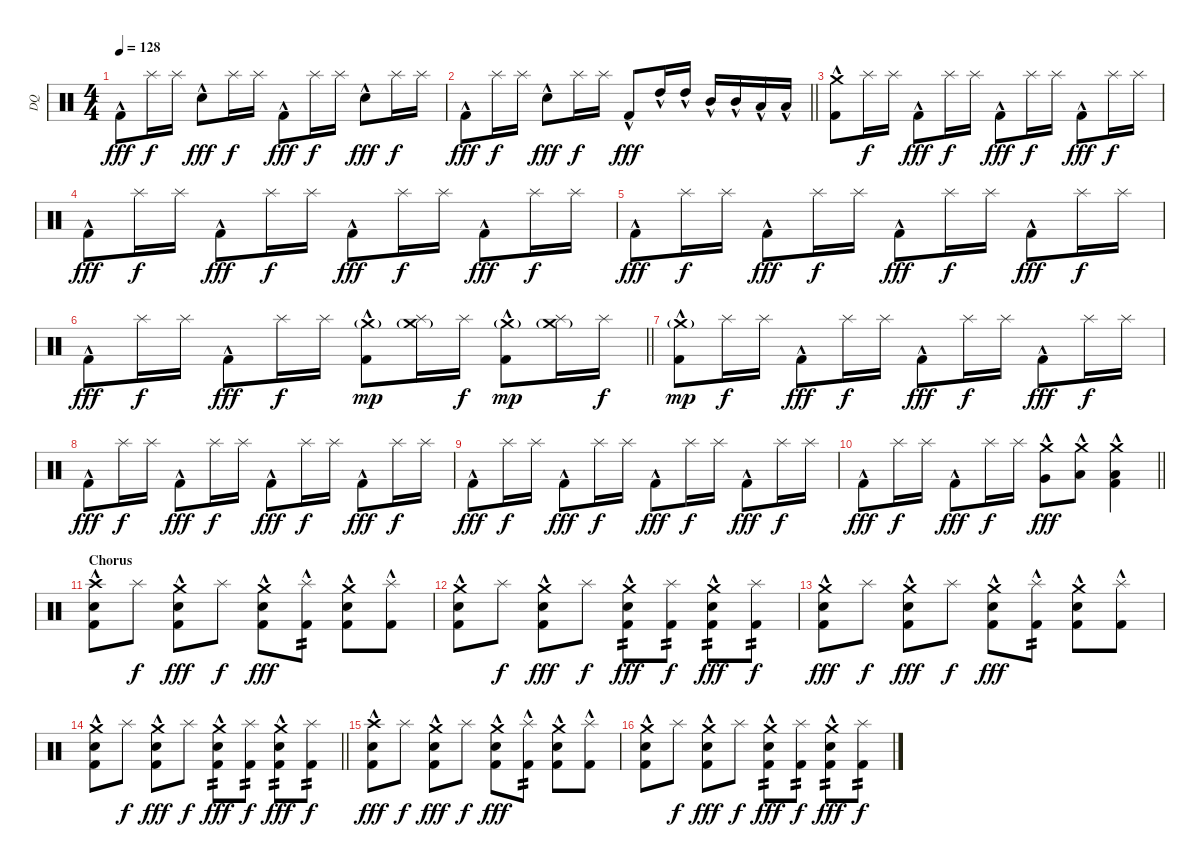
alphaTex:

\track ("DQ" "DQ") {instrument percussion}
\staff {score}
\articulation defaults
\ts (4 4)
\tempo 128
\clef neutral
\ks c "Kick (hit) 2"{hac}.8{dy fff} "Splash (hit)".16{dy f} "Splash (hit)".16 "Snare (hit) 2"{hac}.8{dy fff} "Splash (hit)".16{dy f} "Splash (hit)".16 "Kick (hit) 2"{hac}.8{dy fff} "Splash (hit)".16{dy f} "Splash (hit)".16 "Snare (hit) 2"{hac}.8{dy fff} "Splash (hit)".16{dy f} "Splash (hit)".16
|
\barLineRight lightlight "Kick (hit) 2"{hac}.8{dy fff} "Splash (hit)".16{dy f} "Splash (hit)".16 "Snare (hit) 2"{hac}.8{dy fff} "Splash (hit)".16{dy f} "Splash (hit)".16 "Kick (hit) 2"{hac}.8{dy fff} "High Tom (hit)"{hac}.16 "High Tom (hit)"{hac}.16 "Mid Tom (hit)"{hac}.16 "Mid Tom (hit)"{hac}.16 "Low Tom (hit)"{hac}.16 "Low Tom (hit)"{hac}.16
|
\section ("" "")
("Kick (hit) 2"{hac} "Crash medium (hit)").8 "Splash (hit)".16{dy f} "Splash (hit)".16 "Kick (hit) 2"{hac}.8{dy fff} "Splash (hit)".16{dy f} "Splash (hit)".16 "Kick (hit) 2"{hac}.8{dy fff} "Splash (hit)".16{dy f} "Splash (hit)".16 "Kick (hit) 2"{hac}.8{dy fff} "Splash (hit)".16{dy f} "Splash (hit)".16 |
"Kick (hit) 2"{hac}.8{dy fff} "Splash (hit)".16{dy f} "Splash (hit)".16 "Kick (hit) 2"{hac}.8{dy fff} "Splash (hit)".16{dy f} "Splash (hit)".16 "Kick (hit) 2"{hac}.8{dy fff} "Splash (hit)".16{dy f} "Splash (hit)".16 "Kick (hit) 2"{hac}.8{dy fff} "Splash (hit)".16{dy f} "Splash (hit)".16 |
"Kick (hit) 2"{hac}.8{dy fff} "Splash (hit)".16{dy f} "Splash (hit)".16 "Kick (hit) 2"{hac}.8{dy fff} "Splash (hit)".16{dy f} "Splash (hit)".16 "Kick (hit) 2"{hac}.8{dy fff} "Splash (hit)".16{dy f} "Splash (hit)".16 "Kick (hit) 2"{hac}.8{dy fff} "Splash (hit)".16{dy f} "Splash (hit)".16 |
\barLineRight lightlight "Kick (hit) 2"{hac}.8{dy fff} "Splash (hit)".16{dy f} "Splash (hit)".16 "Kick (hit) 2"{hac}.8{dy fff} "Splash (hit)".16{dy f} "Splash (hit)".16
("Kick (hit) 2"{hac} "Crash medium (hit)"{g}).8{dy mp} ("Splash (hit)" "Crash medium (hit)"{g}).16 "Splash (hit)".16{dy f} ("Kick (hit) 2"{hac} "Crash medium (hit)"{g}).8{dy mp} ("Splash (hit)" "Crash medium (hit)"{g}).16 "Splash (hit)".16{dy f} |
\section ("" "")
("Kick (hit) 2"{hac} "Crash medium (hit)"{g}).8{dy mp} "Splash (hit)".16{dy f} "Splash (hit)".16 "Kick (hit) 2"{hac}.8{dy fff} "Splash (hit)".16{dy f} "Splash (hit)".16 "Kick (hit) 2"{hac}.8{dy fff} "Splash (hit)".16{dy f} "Splash (hit)".16 "Kick (hit) 2"{hac}.8{dy fff} "Splash (hit)".16{dy f} "Splash (hit)".16 |
"Kick (hit) 2"{hac}.8{dy fff} "Splash (hit)".16{dy f} "Splash (hit)".16 "Kick (hit) 2"{hac}.8{dy fff} "Splash (hit)".16{dy f} "Splash (hit)".16 "Kick (hit) 2"{hac}.8{dy fff} "Splash (hit)".16{dy f} "Splash (hit)".16 "Kick (hit) 2"{hac}.8{dy fff} "Splash (hit)".16{dy f} "Splash (hit)".16 |
"Kick (hit) 2"{hac}.8{dy fff} "Splash (hit)".16{dy f} "Splash (hit)".16 "Kick (hit) 2"{hac}.8{dy fff} "Splash (hit)".16{dy f} "Splash (hit)".16 "Kick (hit) 2"{hac}.8{dy fff} "Splash (hit)".16{dy f} "Splash (hit)".16 "Kick (hit) 2"{hac}.8{dy fff} "Splash (hit)".16{dy f} "Splash (hit)".16 |
\barLineRight lightlight "Kick (hit) 2"{hac}.8{dy fff} "Splash (hit)".16{dy f} "Splash (hit)".16 "Kick (hit) 2"{hac}.8{dy fff} "Splash (hit)".16{dy f} "Splash (hit)".16
("Very Low Tom (hit)"{hac} "Crash medium (hit)").8{dy fff} ("Low Floor Tom (hit)"{hac} "Crash medium (hit)").8 ("Kick (hit) 2"{hac} "Low Tom (hit)"{hac} "Crash medium (hit)").4 |
\section ("" "Chorus")
("Kick (hit) 2"{hac} "Snare (hit) 2"{hac} "Crash high (hit)").8 "Splash (hit)".8{dy f} ("Kick (hit) 2"{hac} "Snare (hit) 2"{hac} "Crash medium (hit)").8{dy fff} "Splash (hit)".8{dy f} ("Kick (hit) 2"{hac} "Snare (hit) 2"{hac} "Crash medium (hit)").8{dy fff} ("Kick (hit) 2"{hac} "Splash (hit)").8{tp 2} ("Kick (hit) 2"{hac} "Snare (hit) 2"{hac} "Crash medium (hit)").8 ("Kick (hit) 2"{hac} "Splash (hit)").8 |
("Kick (hit) 2"{hac} "Snare (hit) 2"{hac} "Crash medium (hit)").8 "Splash (hit)".8{dy f} ("Kick (hit) 2"{hac} "Snare (hit) 2"{hac} "Crash medium (hit)").8{dy fff} "Splash (hit)".8{dy f} ("Kick (hit) 2"{hac} "Snare (hit) 2"{hac} "Crash medium (hit)").8{tp 2 dy fff} ("Kick (hit) 2" "Splash (hit)").8{tp 2 dy f} ("Kick (hit) 2"{hac} "Snare (hit) 2"{hac} "Crash medium (hit)").8{tp 2 dy fff} ("Kick (hit) 2" "Splash (hit)").8{tp 2 dy f} |
("Kick (hit) 2"{hac} "Snare (hit) 2"{hac} "Crash medium (hit)").8{dy fff} "Splash (hit)".8{dy f} ("Kick (hit) 2"{hac} "Snare (hit) 2"{hac} "Crash medium (hit)").8{dy fff} "Splash (hit)".8{dy f} ("Kick (hit) 2"{hac} "Snare (hit) 2"{hac} "Crash medium (hit)").8{dy fff} ("Kick (hit) 2"{hac} "Splash (hit)").8{tp 2} ("Kick (hit) 2"{hac} "Snare (hit) 2"{hac} "Crash medium (hit)").8 ("Kick (hit) 2"{hac} "Splash (hit)").8 |
\barLineRight lightlight
("Kick (hit) 2"{hac} "Snare (hit) 2"{hac} "Crash medium (hit)").8 "Splash (hit)".8{dy f} ("Kick (hit) 2"{hac} "Snare (hit) 2"{hac} "Crash medium (hit)").8{dy fff} "Splash (hit)".8{dy f} ("Kick (hit) 2"{hac} "Snare (hit) 2"{hac} "Crash medium (hit)").8{tp 2 dy fff} ("Kick (hit) 2" "Splash (hit)").8{tp 2 dy f} ("Kick (hit) 2"{hac} "Snare (hit) 2"{hac} "Crash medium (hit)").8{tp 2 dy fff} ("Kick (hit) 2" "Splash (hit)").8{tp 2 dy f} |
\section ("" "")
("Kick (hit) 2"{hac} "Snare (hit) 2"{hac} "Crash high (hit)").8{dy fff} "Splash (hit)".8{dy f} ("Kick (hit) 2"{hac} "Snare (hit) 2"{hac} "Crash medium (hit)").8{dy fff} "Splash (hit)".8{dy f} ("Kick (hit) 2"{hac} "Snare (hit) 2"{hac} "Crash medium (hit)").8{dy fff} ("Kick (hit) 2"{hac} "Splash (hit)").8{tp 2} ("Kick (hit) 2"{hac} "Snare (hit) 2"{hac} "Crash medium (hit)").8 ("Kick (hit) 2"{hac} "Splash (hit)").8 |
("Kick (hit) 2"{hac} "Snare (hit) 2"{hac} "Crash medium (hit)").8 "Splash (hit)".8{dy f} ("Kick (hit) 2"{hac} "Snare (hit) 2"{hac} "Crash medium (hit)").8{dy fff} "Splash (hit)".8{dy f} ("Kick (hit) 2"{hac} "Snare (hit) 2"{hac} "Crash medium (hit)").8{tp 2 dy fff} ("Kick (hit) 2" "Splash (hit)").8{tp 2 dy f} ("Kick (hit) 2"{hac} "Snare (hit) 2"{hac} "Crash medium (hit)").8{tp 2 dy fff} ("Kick (hit) 2" "Splash (hit)").8{tp 2 dy f}
